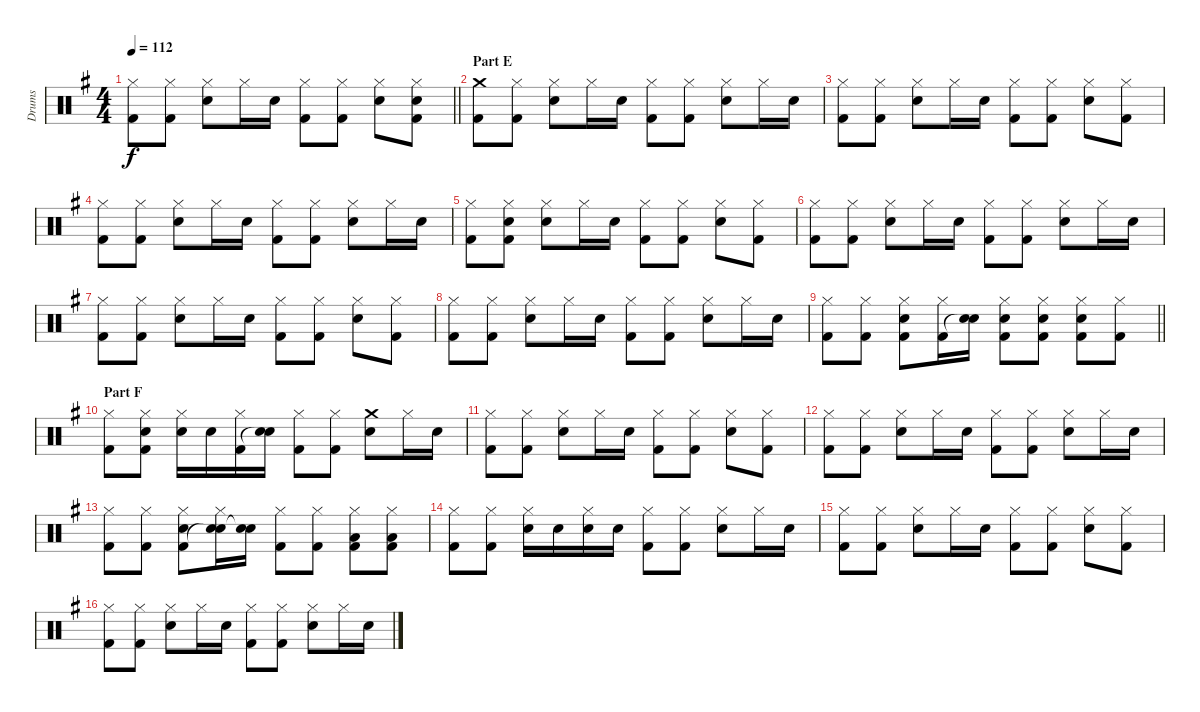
\track ("Drums" "Drums") {instrument percussion}
\staff {score}
\articulation defaults
\ts (4 4)
\tempo 112
\clef neutral
\barLineRight lightlight
\ks g
("Hi-Hat (closed)" "Kick (hit) 2").8{dy f} ("Hi-Hat (closed)" "Kick (hit) 2").8 ("Hi-Hat (closed)" "Electric Snare (hit)").8 "Hi-Hat (closed)".16 "Electric Snare (hit)".16 ("Hi-Hat (closed)" "Kick (hit) 2").8 ("Hi-Hat (closed)" "Kick (hit) 2").8 ("Hi-Hat (closed)" "Electric Snare (hit)").8 ("Hi-Hat (closed)" "Electric Snare (hit)" "Kick (hit) 2").8 |
\section ("" "Part E")
("Crash medium (hit)" "Kick (hit) 2").8 ("Hi-Hat (closed)" "Kick (hit) 2").8 ("Hi-Hat (closed)" "Electric Snare (hit)").8 "Hi-Hat (closed)".16 "Electric Snare (hit)".16 ("Hi-Hat (closed)" "Kick (hit) 2").8 ("Hi-Hat (closed)" "Kick (hit) 2").8 ("Hi-Hat (closed)" "Electric Snare (hit)").8 "Hi-Hat (closed)".16 "Electric Snare (hit)".16 |
("Hi-Hat (closed)" "Kick (hit) 2").8 ("Hi-Hat (closed)" "Kick (hit) 2").8 ("Hi-Hat (closed)" "Electric Snare (hit)").8 "Hi-Hat (closed)".16 "Electric Snare (hit)".16 ("Hi-Hat (closed)" "Kick (hit) 2").8 ("Hi-Hat (closed)" "Kick (hit) 2").8 ("Hi-Hat (closed)" "Electric Snare (hit)").8 ("Hi-Hat (closed)" "Kick (hit) 2").8 |
("Hi-Hat (closed)" "Kick (hit) 2").8 ("Hi-Hat (closed)" "Kick (hit) 2").8 ("Hi-Hat (closed)" "Electric Snare (hit)").8 "Hi-Hat (closed)".16 "Electric Snare (hit)".16 ("Hi-Hat (closed)" "Kick (hit) 2").8 ("Hi-Hat (closed)" "Kick (hit) 2").8 ("Hi-Hat (closed)" "Electric Snare (hit)").8 "Hi-Hat (closed)".16 "Electric Snare (hit)".16 |
("Hi-Hat (closed)" "Kick (hit) 2").8 ("Hi-Hat (closed)" "Electric Snare (hit)" "Kick (hit) 2").8 ("Hi-Hat (closed)" "Electric Snare (hit)").8 "Hi-Hat (closed)".16 "Electric Snare (hit)".16 ("Hi-Hat (closed)" "Kick (hit) 2").8 ("Hi-Hat (closed)" "Kick (hit) 2").8 ("Hi-Hat (closed)" "Electric Snare (hit)").8 ("Hi-Hat (closed)" "Kick (hit) 2").8 |
("Hi-Hat (closed)" "Kick (hit) 2").8 ("Hi-Hat (closed)" "Kick (hit) 2").8 ("Hi-Hat (closed)" "Electric Snare (hit)").8 "Hi-Hat (closed)".16 "Electric Snare (hit)".16 ("Hi-Hat (closed)" "Kick (hit) 2").8 ("Hi-Hat (closed)" "Kick (hit) 2").8 ("Hi-Hat (closed)" "Electric Snare (hit)").8 "Hi-Hat (closed)".16 "Electric Snare (hit)".16 |
("Hi-Hat (closed)" "Kick (hit) 2").8 ("Hi-Hat (closed)" "Kick (hit) 2").8 ("Hi-Hat (closed)" "Electric Snare (hit)").8 "Hi-Hat (closed)".16 "Electric Snare (hit)".16 ("Hi-Hat (closed)" "Kick (hit) 2").8 ("Hi-Hat (closed)" "Kick (hit) 2").8 ("Hi-Hat (closed)" "Electric Snare (hit)").8 ("Hi-Hat (closed)" "Kick (hit) 2").8 |
("Hi-Hat (closed)" "Kick (hit) 2").8 ("Hi-Hat (closed)" "Kick (hit) 2").8 ("Hi-Hat (closed)" "Electric Snare (hit)").8 "Hi-Hat (closed)".16 "Electric Snare (hit)".16 ("Hi-Hat (closed)" "Kick (hit) 2").8 ("Hi-Hat (closed)" "Kick (hit) 2").8 ("Hi-Hat (closed)" "Electric Snare (hit)").8 "Hi-Hat (closed)".16 "Electric Snare (hit)".16 |
\barLineRight lightlight
("Hi-Hat (closed)" "Kick (hit) 2").8 ("Hi-Hat (closed)" "Kick (hit) 2").8 ("Hi-Hat (closed)" "Electric Snare (hit)" "Kick (hit) 2").8 ("Hi-Hat (closed)" "Kick (hit) 2").16 ("Electric Snare (hit)" "Snare (hit)"{t}).16 ("Hi-Hat (closed)" "Electric Snare (hit)" "Kick (hit) 2").8 ("Hi-Hat (closed)" "Electric Snare (hit)" "Kick (hit) 2").8 ("Hi-Hat (closed)" "Electric Snare (hit)" "Kick (hit) 2").8 ("Hi-Hat (closed)" "Kick (hit) 2").8 |
\section ("" "Part F")
("Hi-Hat (closed)" "Kick (hit) 2").8 ("Hi-Hat (closed)" "Electric Snare (hit)" "Kick (hit) 2").8 ("Hi-Hat (closed)" "Electric Snare (hit)").16 "Electric Snare (hit)".16 ("Hi-Hat (closed)" "Kick (hit) 2").16 ("Electric Snare (hit)" "Snare (hit)"{t}).16 ("Hi-Hat (closed)" "Kick (hit) 2").8 ("Hi-Hat (closed)" "Kick (hit) 2").8 ("Crash medium (hit)" "Electric Snare (hit)").8 "Hi-Hat (closed)".16 "Electric Snare (hit)".16 |
("Hi-Hat (closed)" "Kick (hit) 2").8 ("Hi-Hat (closed)" "Kick (hit) 2").8 ("Hi-Hat (closed)" "Electric Snare (hit)").8 "Hi-Hat (closed)".16 "Electric Snare (hit)".16 ("Hi-Hat (closed)" "Kick (hit) 2").8 ("Hi-Hat (closed)" "Kick (hit) 2").8 ("Hi-Hat (closed)" "Electric Snare (hit)").8 ("Hi-Hat (closed)" "Kick (hit) 2").8 |
("Hi-Hat (closed)" "Kick (hit) 2").8 ("Hi-Hat (closed)" "Kick (hit) 2").8 ("Hi-Hat (closed)" "Electric Snare (hit)").8 "Hi-Hat (closed)".16 "Electric Snare (hit)".16 ("Hi-Hat (closed)" "Kick (hit) 2").8 ("Hi-Hat (closed)" "Kick (hit) 2").8 ("Hi-Hat (closed)" "Electric Snare (hit)").8 "Hi-Hat (closed)".16 "Electric Snare (hit)".16 |
("Hi-Hat (closed)" "Kick (hit) 2").8 ("Hi-Hat (closed)" "Kick (hit) 2").8 ("Hi-Hat (closed)" "Electric Snare (hit)" "Kick (hit) 2").8 ("Hi-Hat (closed)" "Electric Snare (hit)" "Snare (hit)"{t}).16 ("Electric Snare (hit)" "Snare (hit)"{t}).16 ("Hi-Hat (closed)" "Kick (hit) 2").8 ("Hi-Hat (closed)" "Kick (hit) 2").8 ("Hi-Hat (closed)" "Low Floor Tom (hit)" "Kick (hit) 2").8 ("Hi-Hat (closed)" "Low Floor Tom (hit)" "Kick (hit) 2").8 |
("Hi-Hat (closed)" "Kick (hit) 2").8 ("Hi-Hat (closed)" "Kick (hit) 2").8 ("Hi-Hat (closed)" "Electric Snare (hit)").16 "Electric Snare (hit)".16 ("Hi-Hat (closed)" "Electric Snare (hit)").16 "Electric Snare (hit)".16 ("Hi-Hat (closed)" "Kick (hit) 2").8 ("Hi-Hat (closed)" "Kick (hit) 2").8 ("Hi-Hat (closed)" "Electric Snare (hit)").8 "Hi-Hat (closed)".16 "Electric Snare (hit)".16 |
("Hi-Hat (closed)" "Kick (hit) 2").8 ("Hi-Hat (closed)" "Kick (hit) 2").8 ("Hi-Hat (closed)" "Electric Snare (hit)").8 "Hi-Hat (closed)".16 "Electric Snare (hit)".16 ("Hi-Hat (closed)" "Kick (hit) 2").8 ("Hi-Hat (closed)" "Kick (hit) 2").8 ("Hi-Hat (closed)" "Electric Snare (hit)").8 ("Hi-Hat (closed)" "Kick (hit) 2").8 |
("Hi-Hat (closed)" "Kick (hit) 2").8 ("Hi-Hat (closed)" "Kick (hit) 2").8 ("Hi-Hat (closed)" "Electric Snare (hit)").8 "Hi-Hat (closed)".16 "Electric Snare (hit)".16 ("Hi-Hat (closed)" "Kick (hit) 2").8 ("Hi-Hat (closed)" "Kick (hit) 2").8 ("Hi-Hat (closed)" "Electric Snare (hit)").8 "Hi-Hat (closed)".16 "Electric Snare (hit)".16
